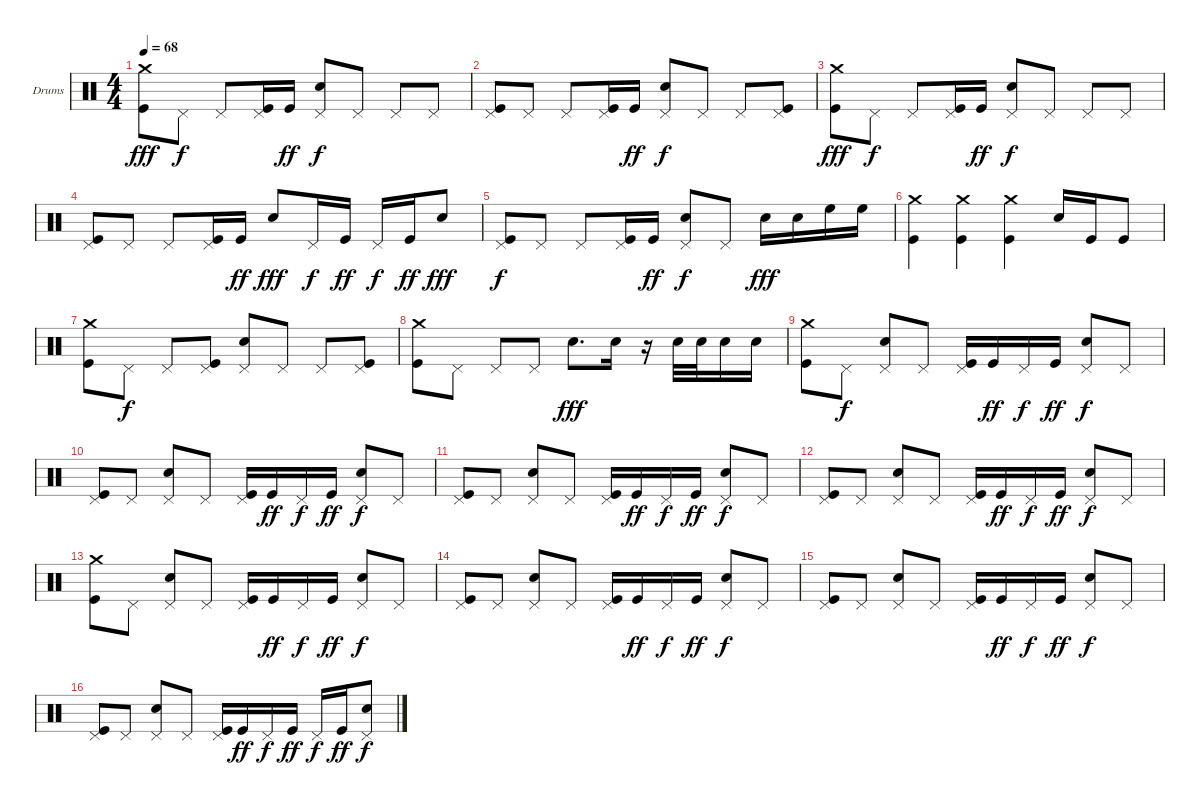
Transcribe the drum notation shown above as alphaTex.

\bracketExtendMode groupsimilarinstruments
\firstSystemTrackNameOrientation horizontal
\otherSystemsTrackNameOrientation horizontal
\track ("Drumkit" "Drums") {instrument percussion}
\staff {score}
\articulation defaults
\ts (4 4)
\tempo 68
\clef neutral
\ks c
("Crash medium (hit)" "Kick (hit)").8{dy fff} "Pedal Hi-Hat (hit)".8{dy f} "Pedal Hi-Hat (hit)".8 ("Pedal Hi-Hat (hit)" "Kick (hit)").16 "Kick (hit)".16{dy ff} ("Pedal Hi-Hat (hit)" "Snare (hit) 2").8{dy f} "Pedal Hi-Hat (hit)".8 "Pedal Hi-Hat (hit)".8 "Pedal Hi-Hat (hit)".8 |
("Pedal Hi-Hat (hit)" "Kick (hit)").8 "Pedal Hi-Hat (hit)".8 "Pedal Hi-Hat (hit)".8 ("Pedal Hi-Hat (hit)" "Kick (hit)").16 "Kick (hit)".16{dy ff} ("Pedal Hi-Hat (hit)" "Snare (hit) 2").8{dy f} "Pedal Hi-Hat (hit)".8 "Pedal Hi-Hat (hit)".8 ("Pedal Hi-Hat (hit)" "Kick (hit)").8 |
("Crash medium (hit)" "Kick (hit)").8{dy fff} "Pedal Hi-Hat (hit)".8{dy f} "Pedal Hi-Hat (hit)".8 ("Pedal Hi-Hat (hit)" "Kick (hit)").16 "Kick (hit)".16{dy ff} ("Pedal Hi-Hat (hit)" "Snare (hit) 2").8{dy f} "Pedal Hi-Hat (hit)".8 "Pedal Hi-Hat (hit)".8 "Pedal Hi-Hat (hit)".8 |
("Pedal Hi-Hat (hit)" "Kick (hit)").8 "Pedal Hi-Hat (hit)".8 "Pedal Hi-Hat (hit)".8 ("Pedal Hi-Hat (hit)" "Kick (hit)").16 "Kick (hit)".16{dy ff} "Snare (hit) 2".8{dy fff} "Pedal Hi-Hat (hit)".16{dy f} "Kick (hit)".16{dy ff} "Pedal Hi-Hat (hit)".16{dy f} "Kick (hit)".16{dy ff} "Snare (hit) 2".8{dy fff} |
("Pedal Hi-Hat (hit)" "Kick (hit)").8{dy f} "Pedal Hi-Hat (hit)".8 "Pedal Hi-Hat (hit)".8 ("Pedal Hi-Hat (hit)" "Kick (hit)").16 "Kick (hit)".16{dy ff} ("Pedal Hi-Hat (hit)" "Snare (hit) 2").8{dy f} "Pedal Hi-Hat (hit)".8 "Snare (hit) 2".16{dy fff} "Snare (hit) 2".16 "High Floor Tom (hit)".16 "High Floor Tom (hit)".16 |
("Crash medium (hit)" "Kick (hit)").4 ("Crash medium (hit)" "Kick (hit)").4 ("Crash medium (hit)" "Kick (hit)").4 "Snare (hit) 2".16 "Kick (hit)".16 "Kick (hit)".8 |
("Crash medium (hit)" "Kick (hit)").8 "Pedal Hi-Hat (hit)".8{dy f} "Pedal Hi-Hat (hit)".8 ("Pedal Hi-Hat (hit)" "Kick (hit)").8 ("Pedal Hi-Hat (hit)" "Snare (hit) 2").8 "Pedal Hi-Hat (hit)".8 "Pedal Hi-Hat (hit)".8 ("Pedal Hi-Hat (hit)" "Kick (hit)").8 |
("Crash medium (hit)" "Kick (hit)").8 "Pedal Hi-Hat (hit)".8 "Pedal Hi-Hat (hit)".8 "Pedal Hi-Hat (hit)".8 "Snare (hit) 2".8{d dy fff} "Snare (hit) 2".16 r.16 "Snare (hit) 2".32 "Snare (hit) 2".32 "Snare (hit) 2".16 "Snare (hit) 2".16 |
("Crash medium (hit)" "Kick (hit)").8 "Pedal Hi-Hat (hit)".8{dy f} ("Pedal Hi-Hat (hit)" "Snare (hit) 2").8 "Pedal Hi-Hat (hit)".8 ("Pedal Hi-Hat (hit)" "Kick (hit)").16 "Kick (hit)".16{dy ff} "Pedal Hi-Hat (hit)".16{dy f} "Kick (hit)".16{dy ff} ("Pedal Hi-Hat (hit)" "Snare (hit) 2").8{dy f} "Pedal Hi-Hat (hit)".8 |
("Pedal Hi-Hat (hit)" "Kick (hit)").8 "Pedal Hi-Hat (hit)".8 ("Pedal Hi-Hat (hit)" "Snare (hit) 2").8 "Pedal Hi-Hat (hit)".8 ("Pedal Hi-Hat (hit)" "Kick (hit)").16 "Kick (hit)".16{dy ff} "Pedal Hi-Hat (hit)".16{dy f} "Kick (hit)".16{dy ff} ("Pedal Hi-Hat (hit)" "Snare (hit) 2").8{dy f} "Pedal Hi-Hat (hit)".8 |
("Pedal Hi-Hat (hit)" "Kick (hit)").8 "Pedal Hi-Hat (hit)".8 ("Pedal Hi-Hat (hit)" "Snare (hit) 2").8 "Pedal Hi-Hat (hit)".8 ("Pedal Hi-Hat (hit)" "Kick (hit)").16 "Kick (hit)".16{dy ff} "Pedal Hi-Hat (hit)".16{dy f} "Kick (hit)".16{dy ff} ("Pedal Hi-Hat (hit)" "Snare (hit) 2").8{dy f} "Pedal Hi-Hat (hit)".8 |
("Pedal Hi-Hat (hit)" "Kick (hit)").8 "Pedal Hi-Hat (hit)".8 ("Pedal Hi-Hat (hit)" "Snare (hit) 2").8 "Pedal Hi-Hat (hit)".8 ("Pedal Hi-Hat (hit)" "Kick (hit)").16 "Kick (hit)".16{dy ff} "Pedal Hi-Hat (hit)".16{dy f} "Kick (hit)".16{dy ff} ("Pedal Hi-Hat (hit)" "Snare (hit) 2").8{dy f} "Pedal Hi-Hat (hit)".8 |
("Crash medium (hit)" "Kick (hit)").8 "Pedal Hi-Hat (hit)".8 ("Pedal Hi-Hat (hit)" "Snare (hit) 2").8 "Pedal Hi-Hat (hit)".8 ("Pedal Hi-Hat (hit)" "Kick (hit)").16 "Kick (hit)".16{dy ff} "Pedal Hi-Hat (hit)".16{dy f} "Kick (hit)".16{dy ff} ("Pedal Hi-Hat (hit)" "Snare (hit) 2").8{dy f} "Pedal Hi-Hat (hit)".8 |
("Pedal Hi-Hat (hit)" "Kick (hit)").8 "Pedal Hi-Hat (hit)".8 ("Pedal Hi-Hat (hit)" "Snare (hit) 2").8 "Pedal Hi-Hat (hit)".8 ("Pedal Hi-Hat (hit)" "Kick (hit)").16 "Kick (hit)".16{dy ff} "Pedal Hi-Hat (hit)".16{dy f} "Kick (hit)".16{dy ff} ("Pedal Hi-Hat (hit)" "Snare (hit) 2").8{dy f} "Pedal Hi-Hat (hit)".8 |
("Pedal Hi-Hat (hit)" "Kick (hit)").8 "Pedal Hi-Hat (hit)".8 ("Pedal Hi-Hat (hit)" "Snare (hit) 2").8 "Pedal Hi-Hat (hit)".8 ("Pedal Hi-Hat (hit)" "Kick (hit)").16 "Kick (hit)".16{dy ff} "Pedal Hi-Hat (hit)".16{dy f} "Kick (hit)".16{dy ff} ("Pedal Hi-Hat (hit)" "Snare (hit) 2").8{dy f} "Pedal Hi-Hat (hit)".8 |
("Pedal Hi-Hat (hit)" "Kick (hit)").8 "Pedal Hi-Hat (hit)".8 ("Pedal Hi-Hat (hit)" "Snare (hit) 2").8 "Pedal Hi-Hat (hit)".8 ("Pedal Hi-Hat (hit)" "Kick (hit)").16 "Kick (hit)".16{dy ff} "Pedal Hi-Hat (hit)".16{dy f} "Kick (hit)".16{dy ff} "Pedal Hi-Hat (hit)".16{dy f} "Kick (hit)".16{dy ff} ("Pedal Hi-Hat (hit)" "Snare (hit) 2").8{dy f}
